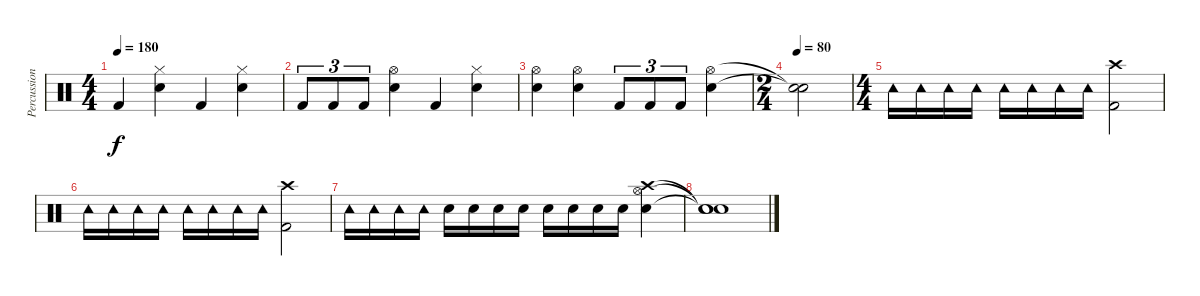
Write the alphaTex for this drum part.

\track ("Percussioni" "Percussion") {instrument percussion}
\staff {score}
\articulation defaults
\ts (4 4)
\tempo 180
\clef neutral
\ks c "Kick (hit) 2".4{dy f}
("Hi-Hat (closed)" "Snare (hit) 2").4 "Kick (hit) 2".4 ("Hi-Hat (closed)" "Snare (hit) 2").4 |
"Kick (hit) 2".8{tu (3 2)} "Kick (hit) 2".8{tu (3 2)} "Kick (hit) 2".8{tu (3 2)} ("Hi-Hat (open)" "Snare (hit) 2").4 "Kick (hit) 2".4 ("Hi-Hat (closed)" "Snare (hit) 2").4 |
("Hi-Hat (open)" "Snare (hit) 2").4 ("Hi-Hat (open)" "Snare (hit) 2").4 "Kick (hit) 2".8{tu (3 2)} "Kick (hit) 2".8{tu (3 2)} "Kick (hit) 2".8{tu (3 2)} ("Hi-Hat (open)" "Snare (hit) 2").4 |
\ts (2 4)
\tempo 80
("Snare (hit)"{t} "Snare (hit)"{t}).2 |
\ts (4 4)
"Tambourine (hit)".16 "Tambourine (hit)".16 "Tambourine (hit)".16 "Tambourine (hit)".16 "Tambourine (hit)".16 "Tambourine (hit)".16 "Tambourine (hit)".16 "Tambourine (hit)".16 ("Crash high (hit)" "Kick (hit) 2").2 |
"Tambourine (hit)".16 "Tambourine (hit)".16 "Tambourine (hit)".16 "Tambourine (hit)".16 "Tambourine (hit)".16 "Tambourine (hit)".16 "Tambourine (hit)".16 "Tambourine (hit)".16 ("Crash high (hit)" "Kick (hit) 2").2 |
"Tambourine (hit)".16 "Tambourine (hit)".16 "Tambourine (hit)".16 "Tambourine (hit)".16 "Snare (hit) 2".16 "Snare (hit) 2".16 "Snare (hit) 2".16 "Snare (hit) 2".16 "Snare (hit) 2".16 "Snare (hit) 2".16 "Snare (hit) 2".16 "Snare (hit) 2".16 ("Crash high (hit)" "Hi-Hat (open)" "Snare (hit) 2").4 |
("Snare (hit)"{t} "Snare (hit)"{t} "Snare (hit)"{t}).1
